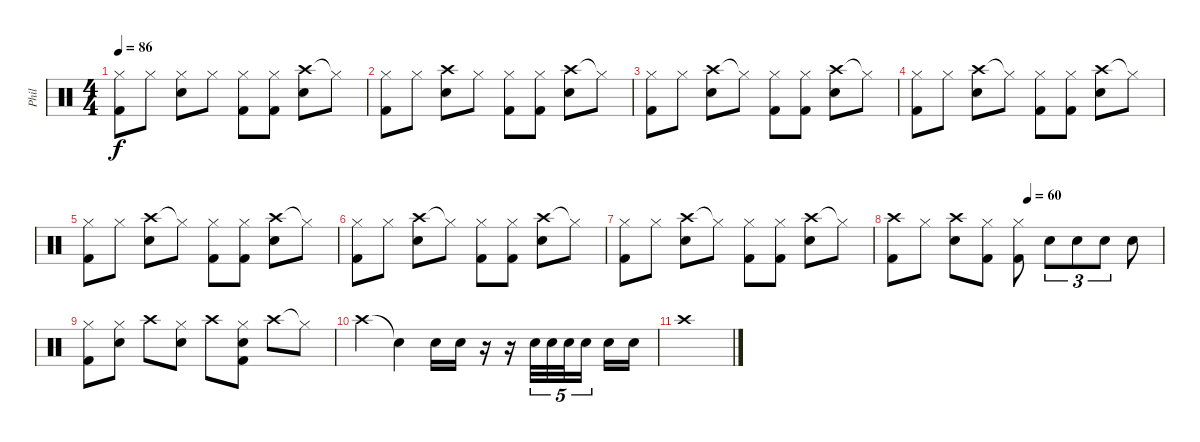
\track ("Phil" "Phil") {instrument percussion}
\staff {score}
\articulation defaults
\ts (4 4)
\tempo 86
\clef neutral
\ks c
("Hi-Hat (closed)" "Kick (hit) 2").8{dy f} "Hi-Hat (closed)".8 ("Hi-Hat (closed)" "Snare (hit) 2").8 "Hi-Hat (closed)".8 ("Hi-Hat (closed)" "Kick (hit) 2").8 ("Hi-Hat (closed)" "Kick (hit) 2").8 ("Crash high (hit)" "Snare (hit) 2").8 "Hi-Hat (closed)"{t}.8 |
("Hi-Hat (closed)" "Kick (hit) 2").8 "Hi-Hat (closed)".8 ("Crash high (hit)" "Snare (hit) 2").8 "Hi-Hat (closed)".8 ("Hi-Hat (closed)" "Kick (hit) 2").8 ("Hi-Hat (closed)" "Kick (hit) 2").8 ("Crash high (hit)" "Snare (hit) 2").8 "Hi-Hat (closed)"{t}.8 |
("Hi-Hat (closed)" "Kick (hit) 2").8 "Hi-Hat (closed)".8 ("Crash high (hit)" "Snare (hit) 2").8 "Hi-Hat (closed)"{t}.8 ("Hi-Hat (closed)" "Kick (hit) 2").8 ("Hi-Hat (closed)" "Kick (hit) 2").8 ("Crash high (hit)" "Snare (hit) 2").8 "Hi-Hat (closed)"{t}.8 |
("Hi-Hat (closed)" "Kick (hit) 2").8 "Hi-Hat (closed)".8 ("Crash high (hit)" "Snare (hit) 2").8 "Hi-Hat (closed)"{t}.8 ("Hi-Hat (closed)" "Kick (hit) 2").8 ("Hi-Hat (closed)" "Kick (hit) 2").8 ("Crash high (hit)" "Snare (hit) 2").8 "Hi-Hat (closed)"{t}.8 |
("Hi-Hat (closed)" "Kick (hit) 2").8 "Hi-Hat (closed)".8 ("Crash high (hit)" "Snare (hit) 2").8 "Hi-Hat (closed)"{t}.8 ("Hi-Hat (closed)" "Kick (hit) 2").8 ("Hi-Hat (closed)" "Kick (hit) 2").8 ("Crash high (hit)" "Snare (hit) 2").8 "Hi-Hat (closed)"{t}.8 |
("Hi-Hat (closed)" "Kick (hit) 2").8 "Hi-Hat (closed)".8 ("Crash high (hit)" "Snare (hit) 2").8 "Hi-Hat (closed)"{t}.8 ("Hi-Hat (closed)" "Kick (hit) 2").8 ("Hi-Hat (closed)" "Kick (hit) 2").8 ("Crash high (hit)" "Snare (hit) 2").8 "Hi-Hat (closed)"{t}.8 |
("Hi-Hat (closed)" "Kick (hit) 2").8 "Hi-Hat (closed)".8 ("Crash high (hit)" "Snare (hit) 2").8 "Hi-Hat (closed)"{t}.8 ("Hi-Hat (closed)" "Kick (hit) 2").8 ("Hi-Hat (closed)" "Kick (hit) 2").8 ("Crash high (hit)" "Snare (hit) 2").8 "Hi-Hat (closed)"{t}.8 |
\tempo (60 0.5)
("Crash high (hit)" "Kick (hit) 2").8 "Hi-Hat (closed)".8 ("Crash high (hit)" "Snare (hit) 2").8 ("Hi-Hat (closed)" "Kick (hit) 2").8 ("Hi-Hat (closed)" "Kick (hit) 2").8 "Snare (hit) 2".8{tu (3 2)} "Snare (hit) 2".8{tu (3 2)} "Snare (hit) 2".8{tu (3 2)} "Snare (hit) 2".8 |
("Hi-Hat (closed)" "Kick (hit) 2").8 ("Hi-Hat (closed)" "Snare (hit) 2").8 "Crash high (hit)".8 ("Hi-Hat (closed)" "Snare (hit) 2").8 "Crash high (hit)".8 ("Hi-Hat (closed)" "Snare (hit) 2" "Kick (hit) 2").8 "Crash high (hit)".8 "Hi-Hat (closed)"{t}.8 |
"Crash high (hit)".4 "Snare (hit)"{t}.4 "Snare (hit) 2".16 "Snare (hit) 2".16 r.16 r.16 "Snare (hit) 2".32{tu (5 4)} "Snare (hit) 2".32{tu (5 4)} "Snare (hit) 2".32{tu (5 4)} "Snare (hit) 2".16{tu (5 4) beam splitsecondary} "Snare (hit) 2".16 "Snare (hit) 2".16 |
"Crash high (hit)".1
